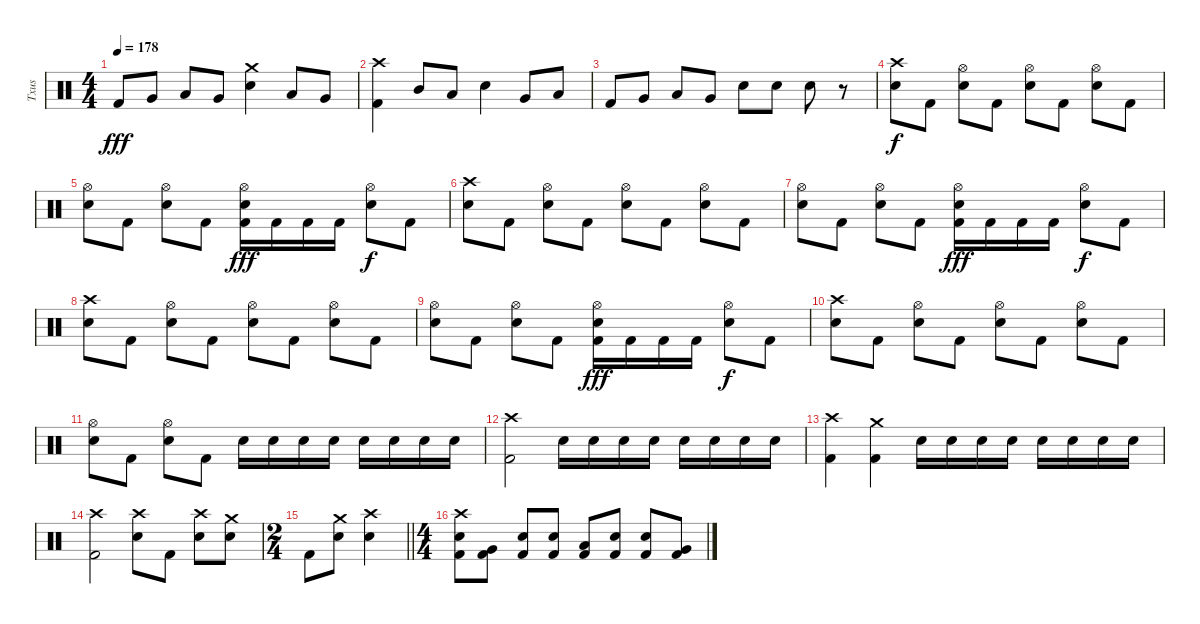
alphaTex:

\track ("Txus" "Txus") {instrument percussion}
\staff {score}
\articulation defaults
\ts (4 4)
\tempo 178
\clef neutral
\ks c "Kick (hit) 2".8{dy fff} "Very Low Tom (hit)".8 "Low Tom (hit)".8 "Very Low Tom (hit)".8
("Crash medium (hit)" "Electric Snare (hit)").4 "Low Tom (hit)".8 "Very Low Tom (hit)".8 |
("Crash high (hit)" "Kick (hit) 2").4 "Mid Tom (hit)".8 "Low Tom (hit)".8 "Electric Snare (hit)".4 "Very Low Tom (hit)".8 "Low Tom (hit)".8 |
"Kick (hit) 2".8 "Very Low Tom (hit)".8 "Low Tom (hit)".8 "Very Low Tom (hit)".8 "Electric Snare (hit)".8 "Electric Snare (hit)".8 "Electric Snare (hit)".8 r.8 |
("Crash high (hit)" "Electric Snare (hit)").8{dy f} "Kick (hit) 2".8 ("Hi-Hat (open)" "Electric Snare (hit)").8 "Kick (hit) 2".8 ("Hi-Hat (open)" "Electric Snare (hit)").8 "Kick (hit) 2".8 ("Hi-Hat (open)" "Electric Snare (hit)").8 "Kick (hit) 2".8 |
("Hi-Hat (open)" "Electric Snare (hit)").8 "Kick (hit) 2".8 ("Hi-Hat (open)" "Electric Snare (hit)").8 "Kick (hit) 2".8 ("Hi-Hat (open)" "Electric Snare (hit)" "Kick (hit) 2").16{dy fff} "Kick (hit) 2".16 "Kick (hit) 2".16 "Kick (hit) 2".16 ("Hi-Hat (open)" "Electric Snare (hit)").8{dy f} "Kick (hit) 2".8 |
("Crash high (hit)" "Electric Snare (hit)").8 "Kick (hit) 2".8 ("Hi-Hat (open)" "Electric Snare (hit)").8 "Kick (hit) 2".8 ("Hi-Hat (open)" "Electric Snare (hit)").8 "Kick (hit) 2".8 ("Hi-Hat (open)" "Electric Snare (hit)").8 "Kick (hit) 2".8 |
("Hi-Hat (open)" "Electric Snare (hit)").8 "Kick (hit) 2".8 ("Hi-Hat (open)" "Electric Snare (hit)").8 "Kick (hit) 2".8 ("Hi-Hat (open)" "Electric Snare (hit)" "Kick (hit) 2").16{dy fff} "Kick (hit) 2".16 "Kick (hit) 2".16 "Kick (hit) 2".16 ("Hi-Hat (open)" "Electric Snare (hit)").8{dy f} "Kick (hit) 2".8 |
("Crash high (hit)" "Electric Snare (hit)").8 "Kick (hit) 2".8 ("Hi-Hat (open)" "Electric Snare (hit)").8 "Kick (hit) 2".8 ("Hi-Hat (open)" "Electric Snare (hit)").8 "Kick (hit) 2".8 ("Hi-Hat (open)" "Electric Snare (hit)").8 "Kick (hit) 2".8 |
("Hi-Hat (open)" "Electric Snare (hit)").8 "Kick (hit) 2".8 ("Hi-Hat (open)" "Electric Snare (hit)").8 "Kick (hit) 2".8 ("Hi-Hat (open)" "Electric Snare (hit)" "Kick (hit) 2").16{dy fff} "Kick (hit) 2".16 "Kick (hit) 2".16 "Kick (hit) 2".16 ("Hi-Hat (open)" "Electric Snare (hit)").8{dy f} "Kick (hit) 2".8 |
("Crash high (hit)" "Electric Snare (hit)").8 "Kick (hit) 2".8 ("Hi-Hat (open)" "Electric Snare (hit)").8 "Kick (hit) 2".8 ("Hi-Hat (open)" "Electric Snare (hit)").8 "Kick (hit) 2".8 ("Hi-Hat (open)" "Electric Snare (hit)").8 "Kick (hit) 2".8 |
("Hi-Hat (open)" "Electric Snare (hit)").8 "Kick (hit) 2".8 ("Hi-Hat (open)" "Electric Snare (hit)").8 "Kick (hit) 2".8 "Electric Snare (hit)".16 "Electric Snare (hit)".16 "Electric Snare (hit)".16 "Electric Snare (hit)".16 "Electric Snare (hit)".16 "Electric Snare (hit)".16 "Electric Snare (hit)".16 "Electric Snare (hit)".16 |
("Crash high (hit)" "Kick (hit) 2").2 "Electric Snare (hit)".16 "Electric Snare (hit)".16 "Electric Snare (hit)".16 "Electric Snare (hit)".16 "Electric Snare (hit)".16 "Electric Snare (hit)".16 "Electric Snare (hit)".16 "Electric Snare (hit)".16 |
("Crash high (hit)" "Kick (hit) 2").4 ("Crash medium (hit)" "Kick (hit) 2").4 "Electric Snare (hit)".16 "Electric Snare (hit)".16 "Electric Snare (hit)".16 "Electric Snare (hit)".16 "Electric Snare (hit)".16 "Electric Snare (hit)".16 "Electric Snare (hit)".16 "Electric Snare (hit)".16 |
("Crash high (hit)" "Kick (hit) 2").2 ("Crash high (hit)" "Electric Snare (hit)").8 "Kick (hit) 2".8 ("Crash high (hit)" "Electric Snare (hit)").8 ("Crash medium (hit)" "Electric Snare (hit)").8 |
\ts (2 4)
\barLineRight lightlight "Kick (hit) 2".8
("Crash medium (hit)" "Electric Snare (hit)").8 ("Crash high (hit)" "Electric Snare (hit)").4 |
\ts (4 4)
("Crash high (hit)" "Electric Snare (hit)" "Kick (hit) 2").8 ("Very Low Tom (hit)" "Kick (hit) 2").8 ("Electric Snare (hit)" "Kick (hit) 2").8 ("Electric Snare (hit)" "Kick (hit) 2").8 ("Low Tom (hit)" "Kick (hit) 2").8 ("Electric Snare (hit)" "Kick (hit) 2").8 ("Electric Snare (hit)" "Kick (hit) 2").8 ("Very Low Tom (hit)" "Kick (hit) 2").8
